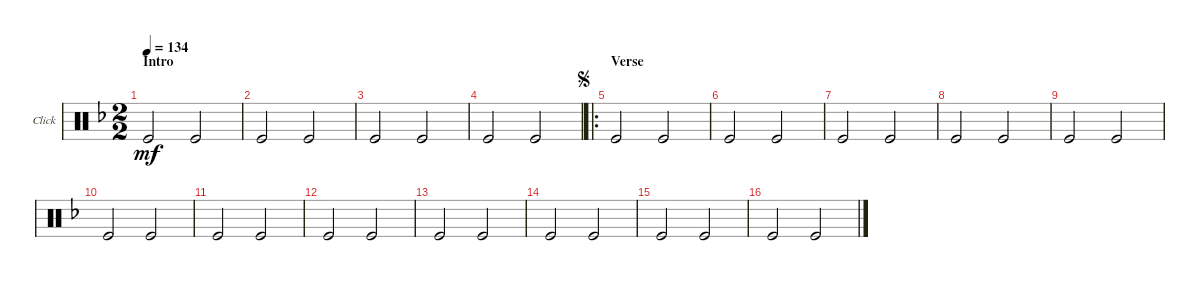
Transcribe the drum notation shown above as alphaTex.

\bracketExtendMode groupsimilarinstruments
\useSystemSignSeparator
\multiTrackTrackNamePolicy allsystems
\firstSystemTrackNameOrientation horizontal
\otherSystemsTrackNameOrientation horizontal
\track ("Click" "Click") {instrument percussion}
\staff {score}
\articulation defaults
\ts (2 2)
\section ("" "Intro")
\scale
0.540904
\tempo 134
\accidentals auto
\clef neutral
\ottava regular
\simile none
\scale
0.378378
\ks f "Kick (hit)".2{dy mf} "Kick (hit)".2
|
\scale
0.459096
\scale
0.207207 "Kick (hit)".2 "Kick (hit)".2 |
\scale
0.5
\scale
0.207207 "Kick (hit)".2 "Kick (hit)".2 |
\scale
0.5
\scale
0.207207 "Kick (hit)".2 "Kick (hit)".2 |
\ro
\section ("" "Verse")
\scale
0.5
\jump segno
\scale
0.344388 "Kick (hit)".2 "Kick (hit)".2 |
\scale
0.5
\scale
0.230924 "Kick (hit)".2 "Kick (hit)".2 |
\scale
0.5
\scale
0.184739 "Kick (hit)".2 "Kick (hit)".2 |
\scale
0.5
\scale
0.239583 "Kick (hit)".2 "Kick (hit)".2 |
\scale
0.5
\scale
0.25 "Kick (hit)".2 "Kick (hit)".2 |
\scale
0.5
\scale
0.25 "Kick (hit)".2 "Kick (hit)".2 |
\scale
0.5
\scale
0.25 "Kick (hit)".2 "Kick (hit)".2 |
\scale
0.5
\scale
0.25 "Kick (hit)".2 "Kick (hit)".2 |
\scale
0.5
\scale
0.333333 "Kick (hit)".2 "Kick (hit)".2 |
\scale
0.5
\scale
0.198276 "Kick (hit)".2 "Kick (hit)".2 |
\scale
0.5
\scale
0.218391 "Kick (hit)".2 "Kick (hit)".2 |
\scale
0.5
\scale
0.25 "Kick (hit)".2 "Kick (hit)".2
